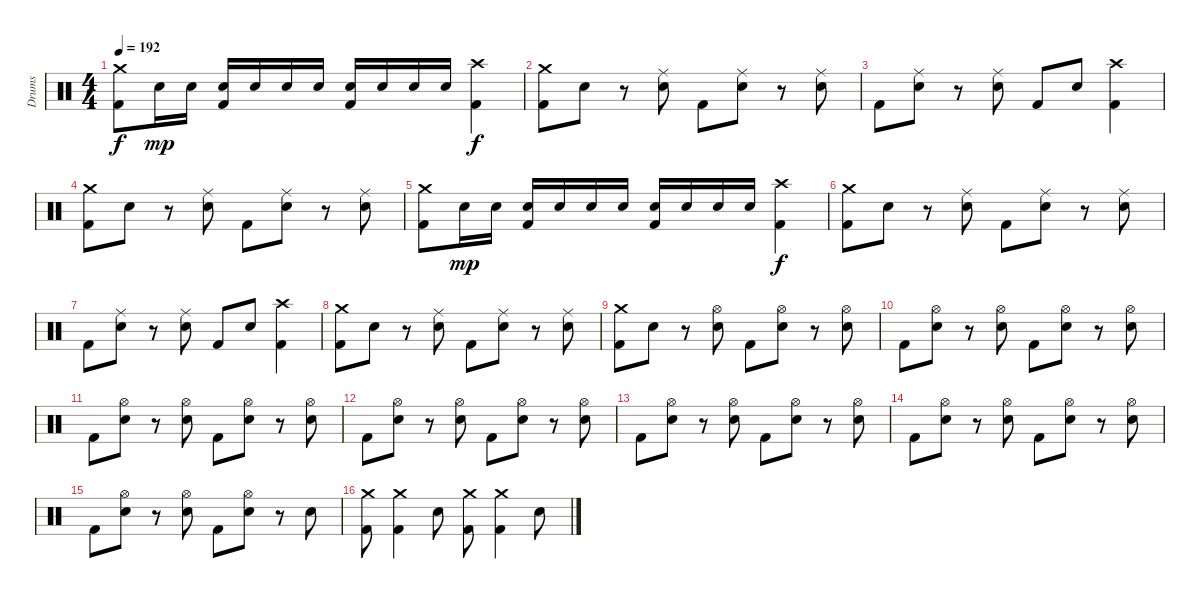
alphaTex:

\track ("Drums" "Drums") {instrument percussion}
\staff
\articulation defaults
\ts (4 4)
\tempo 192
\clef neutral
\ks c
("Crash medium (hit)" "Kick (hit) 2").8{dy f} "Snare (hit) 2".16{dy mp} "Snare (hit) 2".16 ("Snare (hit) 2" "Kick (hit) 2").16 "Snare (hit) 2".16 "Snare (hit) 2".16 "Snare (hit) 2".16 ("Snare (hit) 2" "Kick (hit) 2").16 "Snare (hit) 2".16 "Snare (hit) 2".16 "Snare (hit) 2".16 ("Crash high (hit)" "Kick (hit) 2").4{dy f} |
("Crash medium (hit)" "Kick (hit) 2").8 "Snare (hit) 2".8 r.8 ("Ride (middle)" "Snare (hit) 2").8 "Kick (hit) 2".8 ("Ride (middle)" "Snare (hit) 2").8 r.8 ("Ride (middle)" "Snare (hit) 2").8 |
"Kick (hit) 2".8 ("Ride (middle)" "Snare (hit) 2").8 r.8 ("Ride (middle)" "Snare (hit) 2").8 "Kick (hit) 2".8 "Snare (hit) 2".8 ("Crash high (hit)" "Kick (hit) 2").4 |
("Crash medium (hit)" "Kick (hit) 2").8 "Snare (hit) 2".8 r.8 ("Ride (middle)" "Snare (hit) 2").8 "Kick (hit) 2".8 ("Ride (middle)" "Snare (hit) 2").8 r.8 ("Ride (middle)" "Snare (hit) 2").8 |
("Crash medium (hit)" "Kick (hit) 2").8 "Snare (hit) 2".16{dy mp} "Snare (hit) 2".16 ("Snare (hit) 2" "Kick (hit) 2").16 "Snare (hit) 2".16 "Snare (hit) 2".16 "Snare (hit) 2".16 ("Snare (hit) 2" "Kick (hit) 2").16 "Snare (hit) 2".16 "Snare (hit) 2".16 "Snare (hit) 2".16 ("Crash high (hit)" "Kick (hit) 2").4{dy f} |
("Crash medium (hit)" "Kick (hit) 2").8 "Snare (hit) 2".8 r.8 ("Ride (middle)" "Snare (hit) 2").8 "Kick (hit) 2".8 ("Ride (middle)" "Snare (hit) 2").8 r.8 ("Ride (middle)" "Snare (hit) 2").8 |
"Kick (hit) 2".8 ("Ride (middle)" "Snare (hit) 2").8 r.8 ("Ride (middle)" "Snare (hit) 2").8 "Kick (hit) 2".8 "Snare (hit) 2".8 ("Crash high (hit)" "Kick (hit) 2").4 |
("Crash medium (hit)" "Kick (hit) 2").8 "Snare (hit) 2".8 r.8 ("Ride (middle)" "Snare (hit) 2").8 "Kick (hit) 2".8 ("Ride (middle)" "Snare (hit) 2").8 r.8 ("Ride (middle)" "Snare (hit) 2").8 |
("Crash medium (hit)" "Kick (hit) 2").8 "Snare (hit) 2".8 r.8 ("Hi-Hat (open)" "Snare (hit) 2").8 "Kick (hit) 2".8 ("Hi-Hat (open)" "Snare (hit) 2").8 r.8 ("Hi-Hat (open)" "Snare (hit) 2").8 |
"Kick (hit) 2".8 ("Hi-Hat (open)" "Snare (hit) 2").8 r.8 ("Hi-Hat (open)" "Snare (hit) 2").8 "Kick (hit) 2".8 ("Hi-Hat (open)" "Snare (hit) 2").8 r.8 ("Hi-Hat (open)" "Snare (hit) 2").8 |
"Kick (hit) 2".8 ("Hi-Hat (open)" "Snare (hit) 2").8 r.8 ("Hi-Hat (open)" "Snare (hit) 2").8 "Kick (hit) 2".8 ("Hi-Hat (open)" "Snare (hit) 2").8 r.8 ("Hi-Hat (open)" "Snare (hit) 2").8 |
"Kick (hit) 2".8 ("Hi-Hat (open)" "Snare (hit) 2").8 r.8 ("Hi-Hat (open)" "Snare (hit) 2").8 "Kick (hit) 2".8 ("Hi-Hat (open)" "Snare (hit) 2").8 r.8 ("Hi-Hat (open)" "Snare (hit) 2").8 |
"Kick (hit) 2".8 ("Hi-Hat (open)" "Snare (hit) 2").8 r.8 ("Hi-Hat (open)" "Snare (hit) 2").8 "Kick (hit) 2".8 ("Hi-Hat (open)" "Snare (hit) 2").8 r.8 ("Hi-Hat (open)" "Snare (hit) 2").8 |
"Kick (hit) 2".8 ("Hi-Hat (open)" "Snare (hit) 2").8 r.8 ("Hi-Hat (open)" "Snare (hit) 2").8 "Kick (hit) 2".8 ("Hi-Hat (open)" "Snare (hit) 2").8 r.8 ("Hi-Hat (open)" "Snare (hit) 2").8 |
"Kick (hit) 2".8 ("Hi-Hat (open)" "Snare (hit) 2").8 r.8 ("Hi-Hat (open)" "Snare (hit) 2").8 "Kick (hit) 2".8 ("Hi-Hat (open)" "Snare (hit) 2").8 r.8 "Snare (hit) 2".8 |
("Crash medium (hit)" "Kick (hit) 2").8 ("Crash medium (hit)" "Kick (hit) 2").4 "Snare (hit) 2".8 ("Crash medium (hit)" "Kick (hit) 2").8 ("Crash medium (hit)" "Kick (hit) 2").4 "Snare (hit) 2".8
